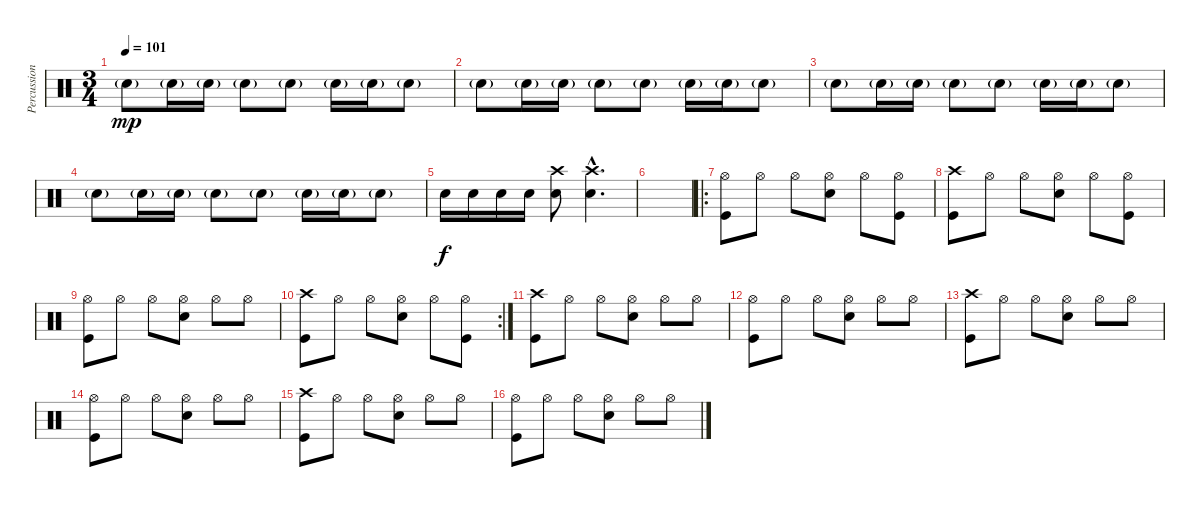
\track ("Percussion" "Percussion") {instrument percussion}
\staff {score}
\articulation defaults
\ts (3 4)
\tempo 101
\clef neutral
\ks c "Snare (hit) 2"{g}.8{dy mp} "Snare (hit) 2"{g}.16 "Snare (hit) 2"{g}.16 "Snare (hit) 2"{g}.8 "Snare (hit) 2"{g}.8 "Snare (hit) 2"{g}.16 "Snare (hit) 2"{g}.16 "Snare (hit) 2"{g}.8
|
"Snare (hit) 2"{g}.8 "Snare (hit) 2"{g}.16 "Snare (hit) 2"{g}.16 "Snare (hit) 2"{g}.8 "Snare (hit) 2"{g}.8 "Snare (hit) 2"{g}.16 "Snare (hit) 2"{g}.16 "Snare (hit) 2"{g}.8 |
"Snare (hit) 2"{g}.8 "Snare (hit) 2"{g}.16 "Snare (hit) 2"{g}.16 "Snare (hit) 2"{g}.8 "Snare (hit) 2"{g}.8 "Snare (hit) 2"{g}.16 "Snare (hit) 2"{g}.16 "Snare (hit) 2"{g}.8 |
"Snare (hit) 2"{g}.8 "Snare (hit) 2"{g}.16 "Snare (hit) 2"{g}.16 "Snare (hit) 2"{g}.8 "Snare (hit) 2"{g}.8 "Snare (hit) 2"{g}.16 "Snare (hit) 2"{g}.16 "Snare (hit) 2"{g}.8 |
"Snare (hit) 2".16{dy f} "Snare (hit) 2".16 "Snare (hit) 2".16 "Snare (hit) 2".16 ("Crash high (hit)" "Snare (hit) 2").8 ("Crash high (hit)"{hac} "Snare (hit) 2"{hac}).4{d} |
|
\ro
("Hi-Hat (open)" "Kick (hit)").8 "Hi-Hat (open)".8 "Hi-Hat (open)".8 ("Hi-Hat (open)" "Snare (hit) 2").8 "Hi-Hat (open)".8 ("Hi-Hat (open)" "Kick (hit)").8 |
("Crash high (hit)" "Kick (hit)").8 "Hi-Hat (open)".8 "Hi-Hat (open)".8 ("Hi-Hat (open)" "Snare (hit) 2").8 "Hi-Hat (open)".8 ("Hi-Hat (open)" "Kick (hit)").8 |
("Hi-Hat (open)" "Kick (hit)").8 "Hi-Hat (open)".8 "Hi-Hat (open)".8 ("Hi-Hat (open)" "Snare (hit) 2").8 "Hi-Hat (open)".8 "Hi-Hat (open)".8 |
\rc 2
("Crash high (hit)" "Kick (hit)").8 "Hi-Hat (open)".8 "Hi-Hat (open)".8 ("Hi-Hat (open)" "Snare (hit) 2").8 "Hi-Hat (open)".8 ("Hi-Hat (open)" "Kick (hit)").8 |
("Crash high (hit)" "Kick (hit)").8 "Hi-Hat (open)".8 "Hi-Hat (open)".8 ("Hi-Hat (open)" "Snare (hit) 2").8 "Hi-Hat (open)".8 "Hi-Hat (open)".8 |
("Hi-Hat (open)" "Kick (hit)").8 "Hi-Hat (open)".8 "Hi-Hat (open)".8 ("Hi-Hat (open)" "Snare (hit) 2").8 "Hi-Hat (open)".8 "Hi-Hat (open)".8 |
("Crash high (hit)" "Kick (hit)").8 "Hi-Hat (open)".8 "Hi-Hat (open)".8 ("Hi-Hat (open)" "Snare (hit) 2").8 "Hi-Hat (open)".8 "Hi-Hat (open)".8 |
("Hi-Hat (open)" "Kick (hit)").8 "Hi-Hat (open)".8 "Hi-Hat (open)".8 ("Hi-Hat (open)" "Snare (hit) 2").8 "Hi-Hat (open)".8 "Hi-Hat (open)".8 |
("Crash high (hit)" "Kick (hit)").8 "Hi-Hat (open)".8 "Hi-Hat (open)".8 ("Hi-Hat (open)" "Snare (hit) 2").8 "Hi-Hat (open)".8 "Hi-Hat (open)".8 |
("Hi-Hat (open)" "Kick (hit)").8 "Hi-Hat (open)".8 "Hi-Hat (open)".8 ("Hi-Hat (open)" "Snare (hit) 2").8 "Hi-Hat (open)".8 "Hi-Hat (open)".8
